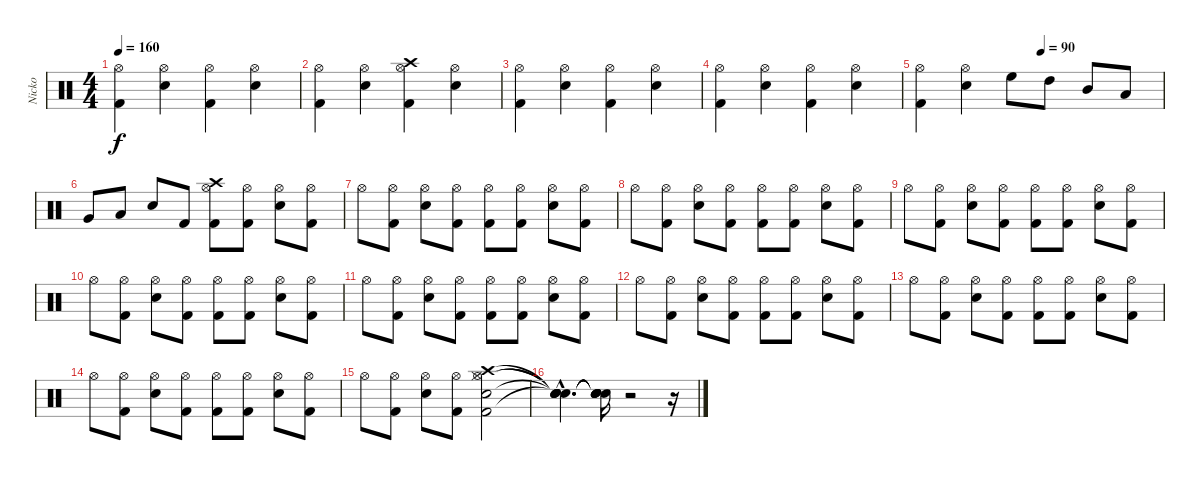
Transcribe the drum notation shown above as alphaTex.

\track ("Nicko" "Nicko") {instrument percussion}
\staff {score}
\articulation defaults
\ts (4 4)
\tempo 160
\clef neutral
\ks c
("Kick (hit) 2" "Hi-Hat (open)").4{dy f} ("Snare (hit) 2" "Hi-Hat (open)").4 ("Kick (hit) 2" "Hi-Hat (open)").4 ("Snare (hit) 2" "Hi-Hat (open)").4 |
("Kick (hit) 2" "Hi-Hat (open)").4 ("Snare (hit) 2" "Hi-Hat (open)").4 ("Kick (hit) 2" "Hi-Hat (open)" "Crash high (hit)").4 ("Snare (hit) 2" "Hi-Hat (open)").4 |
("Kick (hit) 2" "Hi-Hat (open)").4 ("Snare (hit) 2" "Hi-Hat (open)").4 ("Kick (hit) 2" "Hi-Hat (open)").4 ("Snare (hit) 2" "Hi-Hat (open)").4 |
("Kick (hit) 2" "Hi-Hat (open)").4 ("Snare (hit) 2" "Hi-Hat (open)").4 ("Kick (hit) 2" "Hi-Hat (open)").4 ("Snare (hit) 2" "Hi-Hat (open)").4 |
\tempo (90 0.5)
("Kick (hit) 2" "Hi-Hat (open)").4 ("Snare (hit) 2" "Hi-Hat (open)").4 "High Floor Tom (hit)".8 "High Tom (hit)".8 "Mid Tom (hit)".8 "Low Tom (hit)".8 |
"Very Low Tom (hit)".8 "Low Floor Tom (hit)".8 "Snare (hit) 2".8 "Kick (hit) 2".8 ("Kick (hit) 2" "Hi-Hat (open)" "Crash high (hit)").8 ("Kick (hit) 2" "Hi-Hat (open)").8 ("Snare (hit) 2" "Hi-Hat (open)").8 ("Kick (hit) 2" "Hi-Hat (open)").8 |
"Hi-Hat (open)".8 ("Kick (hit) 2" "Hi-Hat (open)").8 ("Snare (hit) 2" "Hi-Hat (open)").8 ("Kick (hit) 2" "Hi-Hat (open)").8 ("Kick (hit) 2" "Hi-Hat (open)").8 ("Kick (hit) 2" "Hi-Hat (open)").8 ("Snare (hit) 2" "Hi-Hat (open)").8 ("Kick (hit) 2" "Hi-Hat (open)").8 |
"Hi-Hat (open)".8 ("Kick (hit) 2" "Hi-Hat (open)").8 ("Snare (hit) 2" "Hi-Hat (open)").8 ("Kick (hit) 2" "Hi-Hat (open)").8 ("Kick (hit) 2" "Hi-Hat (open)").8 ("Kick (hit) 2" "Hi-Hat (open)").8 ("Snare (hit) 2" "Hi-Hat (open)").8 ("Kick (hit) 2" "Hi-Hat (open)").8 |
"Hi-Hat (open)".8 ("Kick (hit) 2" "Hi-Hat (open)").8 ("Snare (hit) 2" "Hi-Hat (open)").8 ("Kick (hit) 2" "Hi-Hat (open)").8 ("Kick (hit) 2" "Hi-Hat (open)").8 ("Kick (hit) 2" "Hi-Hat (open)").8 ("Snare (hit) 2" "Hi-Hat (open)").8 ("Kick (hit) 2" "Hi-Hat (open)").8 |
"Hi-Hat (open)".8 ("Kick (hit) 2" "Hi-Hat (open)").8 ("Snare (hit) 2" "Hi-Hat (open)").8 ("Kick (hit) 2" "Hi-Hat (open)").8 ("Kick (hit) 2" "Hi-Hat (open)").8 ("Kick (hit) 2" "Hi-Hat (open)").8 ("Snare (hit) 2" "Hi-Hat (open)").8 ("Kick (hit) 2" "Hi-Hat (open)").8 |
"Hi-Hat (open)".8 ("Kick (hit) 2" "Hi-Hat (open)").8 ("Snare (hit) 2" "Hi-Hat (open)").8 ("Kick (hit) 2" "Hi-Hat (open)").8 ("Kick (hit) 2" "Hi-Hat (open)").8 ("Kick (hit) 2" "Hi-Hat (open)").8 ("Snare (hit) 2" "Hi-Hat (open)").8 ("Kick (hit) 2" "Hi-Hat (open)").8 |
"Hi-Hat (open)".8 ("Kick (hit) 2" "Hi-Hat (open)").8 ("Snare (hit) 2" "Hi-Hat (open)").8 ("Kick (hit) 2" "Hi-Hat (open)").8 ("Kick (hit) 2" "Hi-Hat (open)").8 ("Kick (hit) 2" "Hi-Hat (open)").8 ("Snare (hit) 2" "Hi-Hat (open)").8 ("Kick (hit) 2" "Hi-Hat (open)").8 |
"Hi-Hat (open)".8 ("Kick (hit) 2" "Hi-Hat (open)").8 ("Snare (hit) 2" "Hi-Hat (open)").8 ("Kick (hit) 2" "Hi-Hat (open)").8 ("Kick (hit) 2" "Hi-Hat (open)").8 ("Kick (hit) 2" "Hi-Hat (open)").8 ("Snare (hit) 2" "Hi-Hat (open)").8 ("Kick (hit) 2" "Hi-Hat (open)").8 |
"Hi-Hat (open)".8 ("Kick (hit) 2" "Hi-Hat (open)").8 ("Snare (hit) 2" "Hi-Hat (open)").8 ("Kick (hit) 2" "Hi-Hat (open)").8 ("Kick (hit) 2" "Hi-Hat (open)").8 ("Kick (hit) 2" "Hi-Hat (open)").8 ("Snare (hit) 2" "Hi-Hat (open)").8 ("Kick (hit) 2" "Hi-Hat (open)").8 |
"Hi-Hat (open)".8 ("Kick (hit) 2" "Hi-Hat (open)").8 ("Snare (hit) 2" "Hi-Hat (open)").8 ("Kick (hit) 2" "Hi-Hat (open)").8 ("Kick (hit) 2" "Snare (hit) 2" "Hi-Hat (closed)" "Hi-Hat (open)" "Crash high (hit)").2 |
("Snare (hit)"{hac t} "Snare (hit)"{hac t} "Snare (hit)"{hac t} "Snare (hit)"{hac t} "Snare (hit)"{hac t}).4{d} ("Snare (hit)"{t} "Snare (hit)"{t} "Snare (hit)"{t} "Snare (hit)"{t} "Snare (hit)"{t}).16 r.2 r.16
